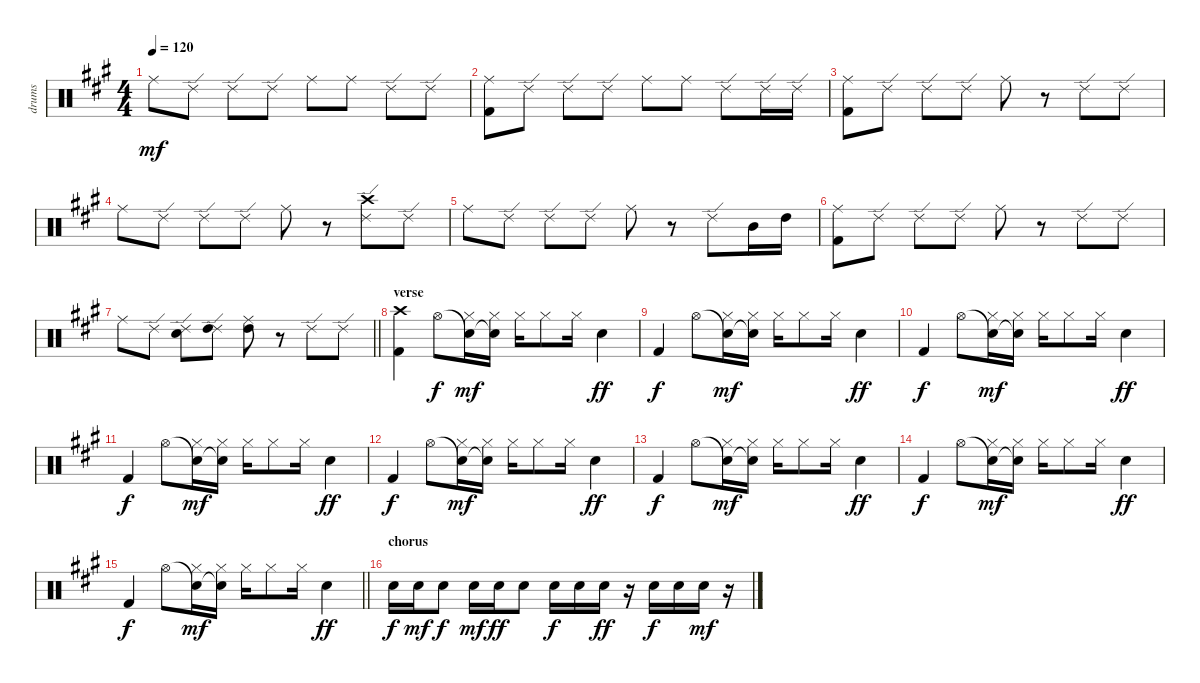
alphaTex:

\track ("drums" "drums") {instrument percussion}
\staff {score}
\articulation defaults
\ts (4 4)
\tempo 120
\clef neutral
\ks a "Ride (middle)".8{dy mf} "Ride (edge) 2".8 "Ride (edge) 2".8 "Ride (edge) 2".8 "Ride (middle)".8 "Ride (middle)".8 "Ride (edge) 2".8 "Ride (edge) 2".8
|
("Ride (middle)" "Kick (hit) 2").8 "Ride (edge) 2".8 "Ride (edge) 2".8 "Ride (edge) 2".8 "Ride (middle)".8 "Ride (middle)".8 "Ride (edge) 2".8 "Ride (edge) 2".16 "Ride (edge) 2".16 |
("Ride (middle)" "Kick (hit) 2").8 "Ride (edge) 2".8 "Ride (edge) 2".8 "Ride (edge) 2".8 "Ride (middle)".8 r.8 "Ride (edge) 2".8 "Ride (edge) 2".8 |
"Ride (middle)".8 "Ride (edge) 2".8 "Ride (edge) 2".8 "Ride (edge) 2".8 "Ride (middle)".8 r.8 ("Ride (edge) 2" "Crash high (hit)").8 "Ride (edge) 2".8 |
"Ride (middle)".8 "Ride (edge) 2".8 "Ride (edge) 2".8 "Ride (edge) 2".8 "Ride (middle)".8 r.8 "Ride (edge) 2".8 "Mid Tom (hit)".16 "High Tom (hit)".16 |
("Ride (middle)" "Kick (hit) 2").8 "Ride (edge) 2".8 "Ride (edge) 2".8 "Ride (edge) 2".8 "Ride (middle)".8 r.8 "Ride (edge) 2".8 "Ride (edge) 2".8 |
\barLineRight lightlight "Ride (middle)".8 "Ride (edge) 2".8
("Ride (edge) 2" "Electric Snare (hit)").8 ("Ride (edge) 2" "High Tom (hit)").8 ("Ride (middle)" "High Tom (hit)").8 r.8 "Ride (edge) 2".8 "Ride (edge) 2".8 |
\section ("" "verse")
("Crash high (hit)" "Kick (hit) 2").4 "Hi-Hat (open)".8{dy f} ("Snare (hit)"{t} "Hi-Hat (closed)").16{dy mf} ("Snare (hit)"{t} "Hi-Hat (closed)").16 "Hi-Hat (closed)".16 "Hi-Hat (closed)".8 "Hi-Hat (closed)".16 "Electric Snare (hit)".4{dy ff} |
"Kick (hit) 2".4{dy f} "Hi-Hat (open)".8 ("Snare (hit)"{t} "Hi-Hat (closed)").16{dy mf} ("Snare (hit)"{t} "Hi-Hat (closed)").16 "Hi-Hat (closed)".16 "Hi-Hat (closed)".8 "Hi-Hat (closed)".16 "Electric Snare (hit)".4{dy ff} |
"Kick (hit) 2".4{dy f} "Hi-Hat (open)".8 ("Snare (hit)"{t} "Hi-Hat (closed)").16{dy mf} ("Snare (hit)"{t} "Hi-Hat (closed)").16 "Hi-Hat (closed)".16 "Hi-Hat (closed)".8 "Hi-Hat (closed)".16 "Electric Snare (hit)".4{dy ff} |
"Kick (hit) 2".4{dy f} "Hi-Hat (open)".8 ("Snare (hit)"{t} "Hi-Hat (closed)").16{dy mf} ("Snare (hit)"{t} "Hi-Hat (closed)").16 "Hi-Hat (closed)".16 "Hi-Hat (closed)".8 "Hi-Hat (closed)".16 "Electric Snare (hit)".4{dy ff} |
"Kick (hit) 2".4{dy f} "Hi-Hat (open)".8 ("Snare (hit)"{t} "Hi-Hat (closed)").16{dy mf} ("Snare (hit)"{t} "Hi-Hat (closed)").16 "Hi-Hat (closed)".16 "Hi-Hat (closed)".8 "Hi-Hat (closed)".16 "Electric Snare (hit)".4{dy ff} |
"Kick (hit) 2".4{dy f} "Hi-Hat (open)".8 ("Snare (hit)"{t} "Hi-Hat (closed)").16{dy mf} ("Snare (hit)"{t} "Hi-Hat (closed)").16 "Hi-Hat (closed)".16 "Hi-Hat (closed)".8 "Hi-Hat (closed)".16 "Electric Snare (hit)".4{dy ff} |
"Kick (hit) 2".4{dy f} "Hi-Hat (open)".8 ("Snare (hit)"{t} "Hi-Hat (closed)").16{dy mf} ("Snare (hit)"{t} "Hi-Hat (closed)").16 "Hi-Hat (closed)".16 "Hi-Hat (closed)".8 "Hi-Hat (closed)".16 "Electric Snare (hit)".4{dy ff} |
\barLineRight lightlight "Kick (hit) 2".4{dy f} "Hi-Hat (open)".8
("Snare (hit)"{t} "Hi-Hat (closed)").16{dy mf} ("Snare (hit)"{t} "Hi-Hat (closed)").16 "Hi-Hat (closed)".16 "Hi-Hat (closed)".8 "Hi-Hat (closed)".16 "Electric Snare (hit)".4{dy ff} |
\section ("" "chorus")
"Electric Snare (hit)".16{dy f} "Electric Snare (hit)".16{dy mf} "Electric Snare (hit)".8{dy f} "Electric Snare (hit)".16{dy mf} "Electric Snare (hit)".16{dy ff} "Electric Snare (hit)".8 "Electric Snare (hit)".16{dy f} "Electric Snare (hit)".16 "Electric Snare (hit)".16{dy ff} r.16 "Electric Snare (hit)".16{dy f} "Electric Snare (hit)".16 "Electric Snare (hit)".16{dy mf} r.16
